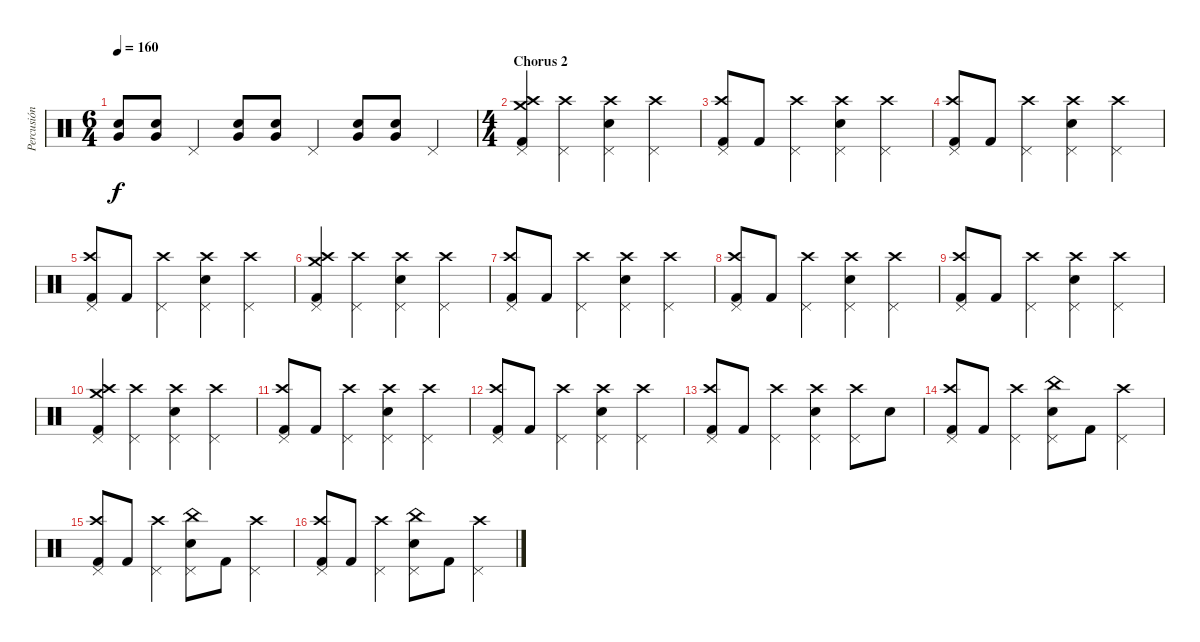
\track ("Percusión" "Percusión") {instrument percussion}
\staff {score}
\articulation defaults
\ts (6 4)
\tempo 160
\clef neutral
\ks c
("Snare (hit) 2" "Very Low Tom (hit)").8{dy f} ("Snare (hit) 2" "Very Low Tom (hit)").8 "Pedal Hi-Hat (hit)".4 ("Snare (hit) 2" "Very Low Tom (hit)").8 ("Snare (hit) 2" "Very Low Tom (hit)").8 "Pedal Hi-Hat (hit)".4 ("Snare (hit) 2" "Very Low Tom (hit)").8 ("Snare (hit) 2" "Very Low Tom (hit)").8 "Pedal Hi-Hat (hit)".4 |
\ts (4 4)
\section ("" "Chorus 2")
("Crash medium (hit)" "Crash high (hit)" "Pedal Hi-Hat (hit)" "Kick (hit) 2").4 ("Crash high (hit)" "Pedal Hi-Hat (hit)").4 ("Crash high (hit)" "Snare (hit) 2" "Pedal Hi-Hat (hit)").4 ("Crash high (hit)" "Pedal Hi-Hat (hit)").4 |
("Crash high (hit)" "Pedal Hi-Hat (hit)" "Kick (hit) 2").8 "Kick (hit) 2".8 ("Crash high (hit)" "Pedal Hi-Hat (hit)").4 ("Crash high (hit)" "Snare (hit) 2" "Pedal Hi-Hat (hit)").4 ("Crash high (hit)" "Pedal Hi-Hat (hit)").4 |
("Crash high (hit)" "Pedal Hi-Hat (hit)" "Kick (hit) 2").8 "Kick (hit) 2".8 ("Crash high (hit)" "Pedal Hi-Hat (hit)").4 ("Crash high (hit)" "Snare (hit) 2" "Pedal Hi-Hat (hit)").4 ("Crash high (hit)" "Pedal Hi-Hat (hit)").4 |
("Crash high (hit)" "Pedal Hi-Hat (hit)" "Kick (hit) 2").8 "Kick (hit) 2".8 ("Crash high (hit)" "Pedal Hi-Hat (hit)").4 ("Crash high (hit)" "Snare (hit) 2" "Pedal Hi-Hat (hit)").4 ("Crash high (hit)" "Pedal Hi-Hat (hit)").4 |
("Crash medium (hit)" "Crash high (hit)" "Pedal Hi-Hat (hit)" "Kick (hit) 2").4 ("Crash high (hit)" "Pedal Hi-Hat (hit)").4 ("Crash high (hit)" "Snare (hit) 2" "Pedal Hi-Hat (hit)").4 ("Crash high (hit)" "Pedal Hi-Hat (hit)").4 |
("Crash high (hit)" "Pedal Hi-Hat (hit)" "Kick (hit) 2").8 "Kick (hit) 2".8 ("Crash high (hit)" "Pedal Hi-Hat (hit)").4 ("Crash high (hit)" "Snare (hit) 2" "Pedal Hi-Hat (hit)").4 ("Crash high (hit)" "Pedal Hi-Hat (hit)").4 |
("Crash high (hit)" "Pedal Hi-Hat (hit)" "Kick (hit) 2").8 "Kick (hit) 2".8 ("Crash high (hit)" "Pedal Hi-Hat (hit)").4 ("Crash high (hit)" "Snare (hit) 2" "Pedal Hi-Hat (hit)").4 ("Crash high (hit)" "Pedal Hi-Hat (hit)").4 |
("Crash high (hit)" "Pedal Hi-Hat (hit)" "Kick (hit) 2").8 "Kick (hit) 2".8 ("Crash high (hit)" "Pedal Hi-Hat (hit)").4 ("Crash high (hit)" "Snare (hit) 2" "Pedal Hi-Hat (hit)").4 ("Crash high (hit)" "Pedal Hi-Hat (hit)").4 |
("Crash medium (hit)" "Crash high (hit)" "Pedal Hi-Hat (hit)" "Kick (hit) 2").4 ("Crash high (hit)" "Pedal Hi-Hat (hit)").4 ("Crash high (hit)" "Snare (hit) 2" "Pedal Hi-Hat (hit)").4 ("Crash high (hit)" "Pedal Hi-Hat (hit)").4 |
("Crash high (hit)" "Pedal Hi-Hat (hit)" "Kick (hit) 2").8 "Kick (hit) 2".8 ("Crash high (hit)" "Pedal Hi-Hat (hit)").4 ("Crash high (hit)" "Snare (hit) 2" "Pedal Hi-Hat (hit)").4 ("Crash high (hit)" "Pedal Hi-Hat (hit)").4 |
("Crash high (hit)" "Pedal Hi-Hat (hit)" "Kick (hit) 2").8 "Kick (hit) 2".8 ("Crash high (hit)" "Pedal Hi-Hat (hit)").4 ("Crash high (hit)" "Snare (hit) 2" "Pedal Hi-Hat (hit)").4 ("Crash high (hit)" "Pedal Hi-Hat (hit)").4 |
("Crash high (hit)" "Pedal Hi-Hat (hit)" "Kick (hit) 2").8 "Kick (hit) 2".8 ("Crash high (hit)" "Pedal Hi-Hat (hit)").4 ("Crash high (hit)" "Snare (hit) 2" "Pedal Hi-Hat (hit)").4 ("Crash high (hit)" "Pedal Hi-Hat (hit)").8 "Snare (hit) 2".8 |
("Crash high (hit)" "Pedal Hi-Hat (hit)" "Kick (hit) 2").8 "Kick (hit) 2".8 ("Crash high (hit)" "Pedal Hi-Hat (hit)").4 ("China (hit)" "Snare (hit) 2" "Pedal Hi-Hat (hit)").8 "Kick (hit) 2".8 ("Crash high (hit)" "Pedal Hi-Hat (hit)").4 |
("Crash high (hit)" "Pedal Hi-Hat (hit)" "Kick (hit) 2").8 "Kick (hit) 2".8 ("Crash high (hit)" "Pedal Hi-Hat (hit)").4 ("China (hit)" "Snare (hit) 2" "Pedal Hi-Hat (hit)").8 "Kick (hit) 2".8 ("Crash high (hit)" "Pedal Hi-Hat (hit)").4 |
("Crash high (hit)" "Pedal Hi-Hat (hit)" "Kick (hit) 2").8 "Kick (hit) 2".8 ("Crash high (hit)" "Pedal Hi-Hat (hit)").4 ("China (hit)" "Snare (hit) 2" "Pedal Hi-Hat (hit)").8 "Kick (hit) 2".8 ("Crash high (hit)" "Pedal Hi-Hat (hit)").4
